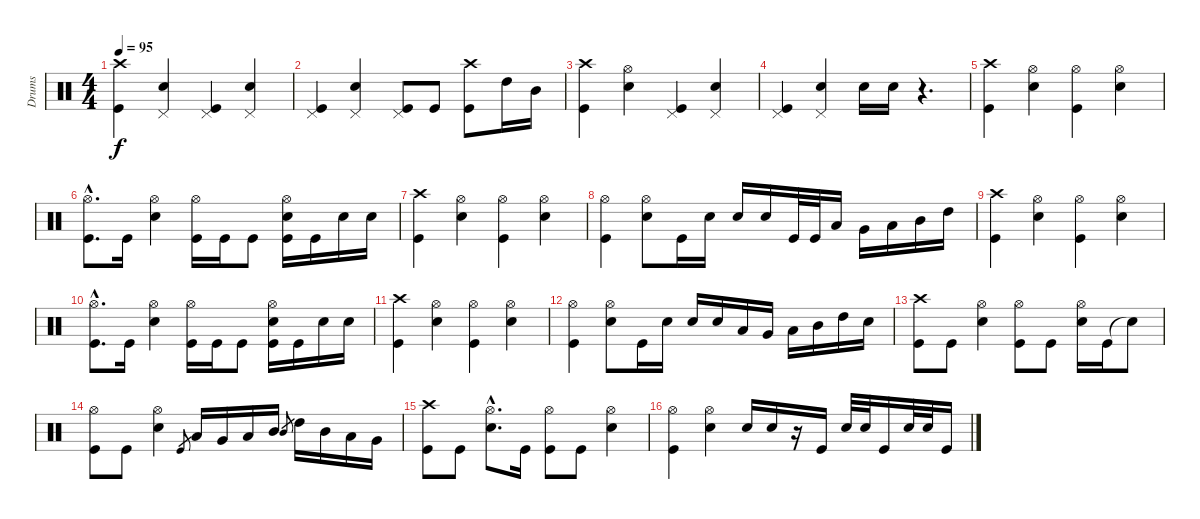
\track ("Drums" "Drums") {instrument percussion}
\staff {score}
\articulation defaults
\ts (4 4)
\tempo 95
\clef neutral
\ks c
("Crash high (hit)" "Kick (hit)").4{dy f} ("Pedal Hi-Hat (hit)" "Electric Snare (hit)").4 ("Pedal Hi-Hat (hit)" "Kick (hit)").4 ("Pedal Hi-Hat (hit)" "Electric Snare (hit)").4 |
("Pedal Hi-Hat (hit)" "Kick (hit)").4 ("Pedal Hi-Hat (hit)" "Electric Snare (hit)").4 ("Pedal Hi-Hat (hit)" "Kick (hit)").8 "Kick (hit)".8 ("Crash high (hit)" "Kick (hit)").8 "High Tom (hit)".16 "Mid Tom (hit)".16 |
("Crash high (hit)" "Kick (hit)").4 ("Hi-Hat (open)" "Electric Snare (hit)").4 ("Pedal Hi-Hat (hit)" "Kick (hit)").4 ("Pedal Hi-Hat (hit)" "Electric Snare (hit)").4 |
("Pedal Hi-Hat (hit)" "Kick (hit)").4 ("Pedal Hi-Hat (hit)" "Electric Snare (hit)").4 "Electric Snare (hit)".16 "Electric Snare (hit)".16 r.4{d} |
("Crash high (hit)" "Kick (hit)").4 ("Hi-Hat (open)" "Electric Snare (hit)").4 ("Hi-Hat (open)" "Kick (hit)").4 ("Hi-Hat (open)" "Electric Snare (hit)").4 |
("Hi-Hat (open)"{hac} "Kick (hit)"{hac}).8{d} "Kick (hit)".16 ("Hi-Hat (open)" "Electric Snare (hit)").4 ("Hi-Hat (open)" "Kick (hit)").16 "Kick (hit)".16 "Kick (hit)".8 ("Hi-Hat (open)" "Electric Snare (hit)" "Kick (hit)").16 "Kick (hit)".16 "Electric Snare (hit)".16 "Electric Snare (hit)".16 |
("Crash high (hit)" "Kick (hit)").4 ("Hi-Hat (open)" "Electric Snare (hit)").4 ("Hi-Hat (open)" "Kick (hit)").4 ("Hi-Hat (open)" "Electric Snare (hit)").4 |
("Hi-Hat (open)" "Kick (hit)").4 ("Hi-Hat (open)" "Electric Snare (hit)").8 "Kick (hit)".16 "Electric Snare (hit)".16 "Electric Snare (hit)".16 "Electric Snare (hit)".16 "Kick (hit)".32 "Kick (hit)".32 "Low Floor Tom (hit)".16 "Very Low Tom (hit)".16 "Low Tom (hit)".16 "Mid Tom (hit)".16 "High Tom (hit)".16 |
("Crash high (hit)" "Kick (hit)").4 ("Hi-Hat (open)" "Electric Snare (hit)").4 ("Hi-Hat (open)" "Kick (hit)").4 ("Hi-Hat (open)" "Electric Snare (hit)").4 |
("Hi-Hat (open)"{hac} "Kick (hit)"{hac}).8{d} "Kick (hit)".16 ("Hi-Hat (open)" "Electric Snare (hit)").4 ("Hi-Hat (open)" "Kick (hit)").16 "Kick (hit)".16 "Kick (hit)".8 ("Hi-Hat (open)" "Electric Snare (hit)" "Kick (hit)").16 "Kick (hit)".16 "Electric Snare (hit)".16 "Electric Snare (hit)".16 |
("Crash high (hit)" "Kick (hit)").4 ("Hi-Hat (open)" "Electric Snare (hit)").4 ("Hi-Hat (open)" "Kick (hit)").4 ("Hi-Hat (open)" "Electric Snare (hit)").4 |
("Hi-Hat (open)" "Kick (hit)").4 ("Hi-Hat (open)" "Electric Snare (hit)").8 "Kick (hit)".16 "Electric Snare (hit)".16 "Electric Snare (hit)".16 "Electric Snare (hit)".16 "Low Floor Tom (hit)".16 "Very Low Tom (hit)".16 "Low Tom (hit)".16 "Mid Tom (hit)".16 "High Tom (hit)".16 "Electric Snare (hit)".16 |
("Crash high (hit)" "Kick (hit)").8 "Kick (hit)".8 ("Hi-Hat (open)" "Electric Snare (hit)").4 ("Hi-Hat (open)" "Kick (hit)").8 "Kick (hit)".8 ("Hi-Hat (open)" "Electric Snare (hit)").16 "Kick (hit)".16 "Snare (hit)"{t}.8 |
("Hi-Hat (open)" "Kick (hit)").8 "Kick (hit)".8 ("Hi-Hat (open)" "Electric Snare (hit)").4 "Kick (hit)"{sl}.8{gr} "Low Floor Tom (hit)".16 "Very Low Tom (hit)".16 "Low Tom (hit)".16 "Mid Tom (hit)".16 "Mid Tom (hit)"{sl}.8{gr} "High Tom (hit)".16 "Mid Tom (hit)".16 "Low Tom (hit)".16 "Very Low Tom (hit)".16 |
("Crash high (hit)" "Kick (hit)").8 "Kick (hit)".8 ("Hi-Hat (open)"{hac} "Electric Snare (hit)"{hac}).8{d} "Kick (hit)".16 ("Hi-Hat (open)" "Kick (hit)").8 "Kick (hit)".8 ("Hi-Hat (open)" "Electric Snare (hit)").4 |
("Hi-Hat (open)" "Kick (hit)").4 ("Hi-Hat (open)" "Electric Snare (hit)").4 "Electric Snare (hit)".16 "Electric Snare (hit)".16 r.16 "Kick (hit)".16 "Electric Snare (hit)".32 "Electric Snare (hit)".32 "Kick (hit)".16 "Electric Snare (hit)".32 "Electric Snare (hit)".32 "Kick (hit)".16
